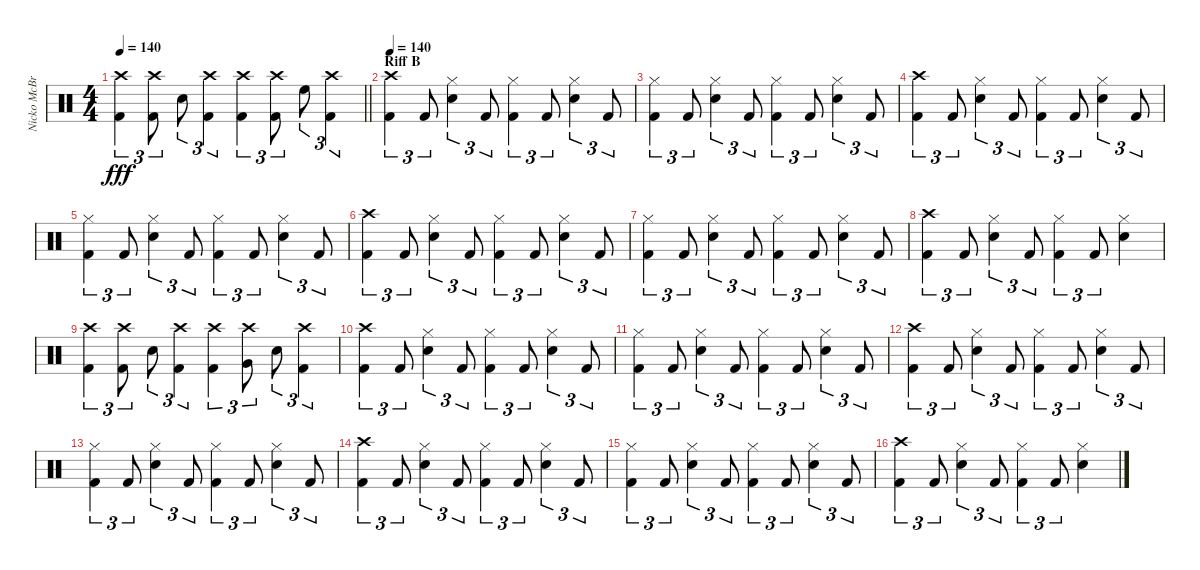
\track ("Nicko McBrain" "Nicko McBr") {instrument percussion}
\staff {score}
\articulation defaults
\ts (4 4)
\tempo 140
\clef neutral
\barLineRight lightlight
\ks c
("Crash high (hit)" "Kick (hit) 2").4{tu (3 2) dy fff} ("Crash high (hit)" "Kick (hit) 2").8{tu (3 2)} "Snare (hit) 2".8{tu (3 2)} ("Kick (hit) 2" "Crash high (hit)").4{tu (3 2)} ("Crash high (hit)" "Kick (hit) 2").4{tu (3 2)} ("Crash high (hit)" "Kick (hit) 2").8{tu (3 2)} "High Floor Tom (hit)".8{tu (3 2)} ("Crash high (hit)" "Kick (hit) 2").4{tu (3 2)} |
\section ("" "Riff B")
\tempo 140
("Crash high (hit)" "Kick (hit) 2").4{tu (3 2)} "Kick (hit) 2".8{tu (3 2)} ("Hi-Hat (closed)" "Snare (hit) 2").4{tu (3 2)} "Kick (hit) 2".8{tu (3 2)} ("Kick (hit) 2" "Hi-Hat (closed)").4{tu (3 2)} "Kick (hit) 2".8{tu (3 2)} ("Hi-Hat (closed)" "Snare (hit) 2").4{tu (3 2)} "Kick (hit) 2".8{tu (3 2)} |
("Kick (hit) 2" "Hi-Hat (closed)").4{tu (3 2)} "Kick (hit) 2".8{tu (3 2)} ("Hi-Hat (closed)" "Snare (hit) 2").4{tu (3 2)} "Kick (hit) 2".8{tu (3 2)} ("Kick (hit) 2" "Hi-Hat (closed)").4{tu (3 2)} "Kick (hit) 2".8{tu (3 2)} ("Hi-Hat (closed)" "Snare (hit) 2").4{tu (3 2)} "Kick (hit) 2".8{tu (3 2)} |
("Crash high (hit)" "Kick (hit) 2").4{tu (3 2)} "Kick (hit) 2".8{tu (3 2)} ("Hi-Hat (closed)" "Snare (hit) 2").4{tu (3 2)} "Kick (hit) 2".8{tu (3 2)} ("Kick (hit) 2" "Hi-Hat (closed)").4{tu (3 2)} "Kick (hit) 2".8{tu (3 2)} ("Hi-Hat (closed)" "Snare (hit) 2").4{tu (3 2)} "Kick (hit) 2".8{tu (3 2)} |
("Kick (hit) 2" "Hi-Hat (closed)").4{tu (3 2)} "Kick (hit) 2".8{tu (3 2)} ("Hi-Hat (closed)" "Snare (hit) 2").4{tu (3 2)} "Kick (hit) 2".8{tu (3 2)} ("Kick (hit) 2" "Hi-Hat (closed)").4{tu (3 2)} "Kick (hit) 2".8{tu (3 2)} ("Hi-Hat (closed)" "Snare (hit) 2").4{tu (3 2)} "Kick (hit) 2".8{tu (3 2)} |
("Crash high (hit)" "Kick (hit) 2").4{tu (3 2)} "Kick (hit) 2".8{tu (3 2)} ("Hi-Hat (closed)" "Snare (hit) 2").4{tu (3 2)} "Kick (hit) 2".8{tu (3 2)} ("Kick (hit) 2" "Hi-Hat (closed)").4{tu (3 2)} "Kick (hit) 2".8{tu (3 2)} ("Hi-Hat (closed)" "Snare (hit) 2").4{tu (3 2)} "Kick (hit) 2".8{tu (3 2)} |
("Kick (hit) 2" "Hi-Hat (closed)").4{tu (3 2)} "Kick (hit) 2".8{tu (3 2)} ("Hi-Hat (closed)" "Snare (hit) 2").4{tu (3 2)} "Kick (hit) 2".8{tu (3 2)} ("Kick (hit) 2" "Hi-Hat (closed)").4{tu (3 2)} "Kick (hit) 2".8{tu (3 2)} ("Hi-Hat (closed)" "Snare (hit) 2").4{tu (3 2)} "Kick (hit) 2".8{tu (3 2)} |
("Crash high (hit)" "Kick (hit) 2").4{tu (3 2)} "Kick (hit) 2".8{tu (3 2)} ("Hi-Hat (closed)" "Snare (hit) 2").4{tu (3 2)} "Kick (hit) 2".8{tu (3 2)} ("Kick (hit) 2" "Hi-Hat (closed)").4{tu (3 2)} "Kick (hit) 2".8{tu (3 2)} ("Hi-Hat (closed)" "Snare (hit) 2").4 |
("Kick (hit) 2" "Crash high (hit)").4{tu (3 2)} ("Kick (hit) 2" "Crash high (hit)").8{tu (3 2)} "Snare (hit) 2".8{tu (3 2)} ("Kick (hit) 2" "Crash high (hit)").4{tu (3 2)} ("Kick (hit) 2" "Crash high (hit)").4{tu (3 2)} ("Very Low Tom (hit)" "Crash high (hit)").8{tu (3 2)} "Snare (hit) 2".8{tu (3 2)} ("Kick (hit) 2" "Crash high (hit)").4{tu (3 2)} |
("Crash high (hit)" "Kick (hit) 2").4{tu (3 2)} "Kick (hit) 2".8{tu (3 2)} ("Hi-Hat (closed)" "Snare (hit) 2").4{tu (3 2)} "Kick (hit) 2".8{tu (3 2)} ("Kick (hit) 2" "Hi-Hat (closed)").4{tu (3 2)} "Kick (hit) 2".8{tu (3 2)} ("Hi-Hat (closed)" "Snare (hit) 2").4{tu (3 2)} "Kick (hit) 2".8{tu (3 2)} |
("Kick (hit) 2" "Hi-Hat (closed)").4{tu (3 2)} "Kick (hit) 2".8{tu (3 2)} ("Hi-Hat (closed)" "Snare (hit) 2").4{tu (3 2)} "Kick (hit) 2".8{tu (3 2)} ("Kick (hit) 2" "Hi-Hat (closed)").4{tu (3 2)} "Kick (hit) 2".8{tu (3 2)} ("Hi-Hat (closed)" "Snare (hit) 2").4{tu (3 2)} "Kick (hit) 2".8{tu (3 2)} |
("Crash high (hit)" "Kick (hit) 2").4{tu (3 2)} "Kick (hit) 2".8{tu (3 2)} ("Hi-Hat (closed)" "Snare (hit) 2").4{tu (3 2)} "Kick (hit) 2".8{tu (3 2)} ("Kick (hit) 2" "Hi-Hat (closed)").4{tu (3 2)} "Kick (hit) 2".8{tu (3 2)} ("Hi-Hat (closed)" "Snare (hit) 2").4{tu (3 2)} "Kick (hit) 2".8{tu (3 2)} |
("Kick (hit) 2" "Hi-Hat (closed)").4{tu (3 2)} "Kick (hit) 2".8{tu (3 2)} ("Hi-Hat (closed)" "Snare (hit) 2").4{tu (3 2)} "Kick (hit) 2".8{tu (3 2)} ("Kick (hit) 2" "Hi-Hat (closed)").4{tu (3 2)} "Kick (hit) 2".8{tu (3 2)} ("Hi-Hat (closed)" "Snare (hit) 2").4{tu (3 2)} "Kick (hit) 2".8{tu (3 2)} |
("Crash high (hit)" "Kick (hit) 2").4{tu (3 2)} "Kick (hit) 2".8{tu (3 2)} ("Hi-Hat (closed)" "Snare (hit) 2").4{tu (3 2)} "Kick (hit) 2".8{tu (3 2)} ("Kick (hit) 2" "Hi-Hat (closed)").4{tu (3 2)} "Kick (hit) 2".8{tu (3 2)} ("Hi-Hat (closed)" "Snare (hit) 2").4{tu (3 2)} "Kick (hit) 2".8{tu (3 2)} |
("Kick (hit) 2" "Hi-Hat (closed)").4{tu (3 2)} "Kick (hit) 2".8{tu (3 2)} ("Hi-Hat (closed)" "Snare (hit) 2").4{tu (3 2)} "Kick (hit) 2".8{tu (3 2)} ("Kick (hit) 2" "Hi-Hat (closed)").4{tu (3 2)} "Kick (hit) 2".8{tu (3 2)} ("Hi-Hat (closed)" "Snare (hit) 2").4{tu (3 2)} "Kick (hit) 2".8{tu (3 2)} |
("Crash high (hit)" "Kick (hit) 2").4{tu (3 2)} "Kick (hit) 2".8{tu (3 2)} ("Hi-Hat (closed)" "Snare (hit) 2").4{tu (3 2)} "Kick (hit) 2".8{tu (3 2)} ("Kick (hit) 2" "Hi-Hat (closed)").4{tu (3 2)} "Kick (hit) 2".8{tu (3 2)} ("Hi-Hat (closed)" "Snare (hit) 2").4
